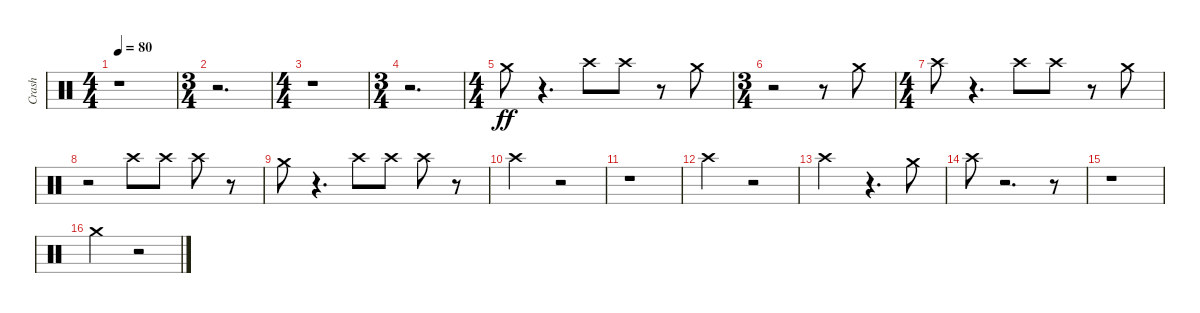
\track ("Crash" "Crash") {instrument percussion}
\staff {score}
\articulation defaults
\ts (4 4)
\tempo 80
\clef neutral
\ks c
r.1{dy ff} |
\ts (3 4)
r.2{d} |
\ts (4 4)
r.1 |
\ts (3 4)
r.2{d} |
\ts (4 4)
"Crash medium (hit)".8 r.4{d} "Crash high (hit)".8 "Crash high (hit)".8 r.8 "Crash medium (hit)".8 |
\ts (3 4)
r.2 r.8 "Crash medium (hit)".8 |
\ts (4 4)
"Crash high (hit)".8 r.4{d} "Crash high (hit)".8 "Crash high (hit)".8 r.8 "Crash medium (hit)".8 |
r.2 "Crash high (hit)".8 "Crash high (hit)".8 "Crash high (hit)".8 r.8 |
"Crash medium (hit)".8 r.4{d} "Crash high (hit)".8 "Crash high (hit)".8 "Crash high (hit)".8 r.8 |
"Crash high (hit)".2 r.2 |
r.1 |
"Crash high (hit)".2 r.2 |
"Crash high (hit)".2 r.4{d} "Crash medium (hit)".8 |
"Crash high (hit)".8 r.2{d} r.8 |
r.1 |
"Crash medium (hit)".2 r.2
